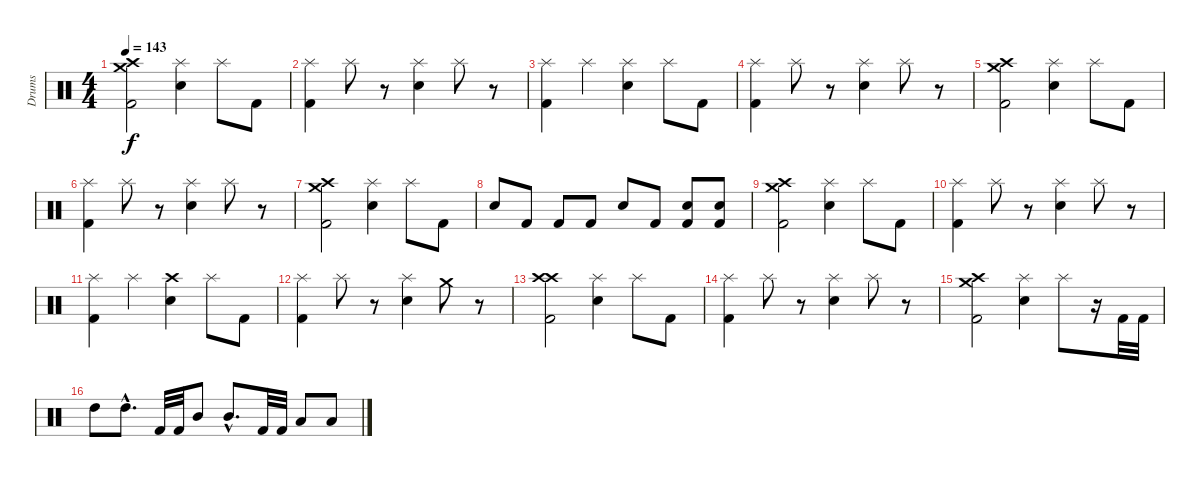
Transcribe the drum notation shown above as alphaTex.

\track ("Drums" "Drums") {instrument percussion}
\staff {score}
\articulation defaults
\ts (4 4)
\tempo 143
\clef neutral
\ks c
("Crash medium (hit)" "Crash high (hit)" "Kick (hit) 2").2{dy f} ("Splash (hit)" "Electric Snare (hit)").4 "Splash (hit)".8 "Kick (hit) 2".8 |
("Splash (hit)" "Kick (hit) 2").4 "Splash (hit)".8 r.8 ("Splash (hit)" "Electric Snare (hit)").4 "Splash (hit)".8 r.8 |
("Splash (hit)" "Kick (hit) 2").4 "Splash (hit)".4 ("Splash (hit)" "Electric Snare (hit)").4 "Splash (hit)".8 "Kick (hit) 2".8 |
("Splash (hit)" "Kick (hit) 2").4 "Splash (hit)".8 r.8 ("Splash (hit)" "Electric Snare (hit)").4 "Splash (hit)".8 r.8 |
("Crash medium (hit)" "Crash high (hit)" "Kick (hit) 2").2 ("Splash (hit)" "Electric Snare (hit)").4 "Splash (hit)".8 "Kick (hit) 2".8 |
("Splash (hit)" "Kick (hit) 2").4 "Splash (hit)".8 r.8 ("Splash (hit)" "Electric Snare (hit)").4 "Splash (hit)".8 r.8 |
("Crash medium (hit)" "Crash high (hit)" "Kick (hit) 2").2 ("Splash (hit)" "Electric Snare (hit)").4 "Splash (hit)".8 "Kick (hit) 2".8 |
"Electric Snare (hit)".8 "Kick (hit) 2".8 "Kick (hit) 2".8 "Kick (hit) 2".8 "Electric Snare (hit)".8 "Kick (hit) 2".8 ("Snare (hit) 2" "Kick (hit) 2").8 ("Snare (hit) 2" "Kick (hit) 2").8 |
("Crash medium (hit)" "Crash high (hit)" "Kick (hit) 2").2 ("Splash (hit)" "Electric Snare (hit)").4 "Splash (hit)".8 "Kick (hit) 2".8 |
("Splash (hit)" "Kick (hit) 2").4 "Splash (hit)".8 r.8 ("Splash (hit)" "Electric Snare (hit)").4 "Splash (hit)".8 r.8 |
("Splash (hit)" "Kick (hit) 2").4 "Splash (hit)".4 ("Crash high (hit)" "Electric Snare (hit)").4 "Splash (hit)".8 "Kick (hit) 2".8 |
("Splash (hit)" "Kick (hit) 2").4 "Splash (hit)".8 r.8 ("Splash (hit)" "Electric Snare (hit)").4 "Crash medium (hit)".8 r.8 |
("Crash high (hit)" "Crash high (hit)" "Kick (hit) 2").2 ("Splash (hit)" "Electric Snare (hit)").4 "Splash (hit)".8 "Kick (hit) 2".8 |
("Splash (hit)" "Kick (hit) 2").4 "Splash (hit)".8 r.8 ("Splash (hit)" "Electric Snare (hit)").4 "Splash (hit)".8 r.8 |
("Crash medium (hit)" "Crash high (hit)" "Kick (hit) 2").2 ("Splash (hit)" "Electric Snare (hit)").4 "Splash (hit)".8 r.16 "Kick (hit) 2".32 "Kick (hit) 2".32 |
"High Tom (hit)".8 "High Tom (hit)"{hac}.8{d} "Kick (hit) 2".32 "Kick (hit) 2".32 "Mid Tom (hit)".8 "Mid Tom (hit)"{hac}.8{d} "Kick (hit) 2".32 "Kick (hit) 2".32 "Low Tom (hit)".8 "Low Tom (hit)".8
